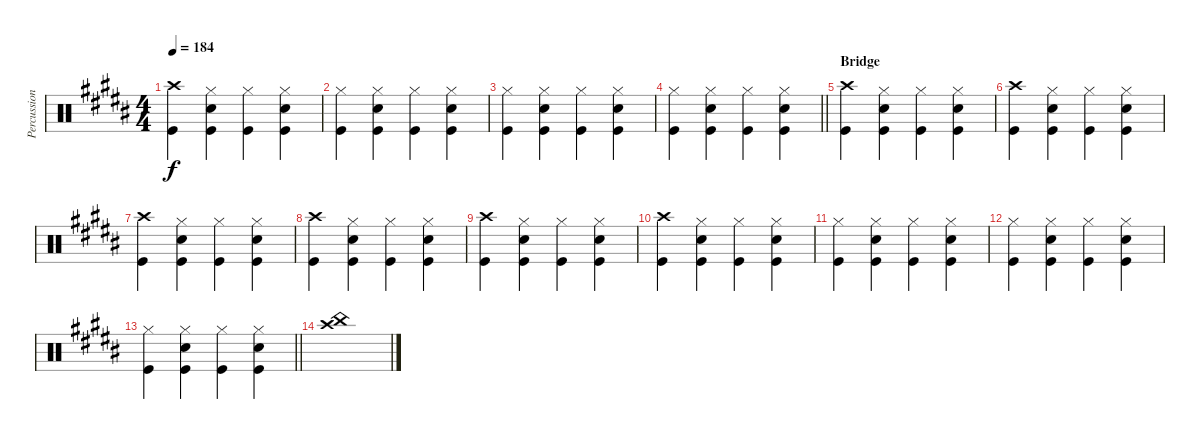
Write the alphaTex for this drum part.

\track ("Percussion" "Percussion") {instrument percussion}
\staff {score}
\articulation defaults
\ts (4 4)
\tempo 184
\clef neutral
\ks b
("Crash high (hit)" "Kick (hit)").4{dy f} ("Snare (hit) 2" "Kick (hit)" "Hi-Hat (closed)").4 ("Kick (hit)" "Hi-Hat (closed)").4 ("Snare (hit) 2" "Kick (hit)" "Hi-Hat (closed)").4 |
("Hi-Hat (closed)" "Kick (hit)").4 ("Snare (hit) 2" "Kick (hit)" "Hi-Hat (closed)").4 ("Hi-Hat (closed)" "Kick (hit)").4 ("Snare (hit) 2" "Kick (hit)" "Hi-Hat (closed)").4 |
("Hi-Hat (closed)" "Kick (hit)").4 ("Kick (hit)" "Hi-Hat (closed)" "Snare (hit) 2").4 ("Hi-Hat (closed)" "Kick (hit)").4 ("Hi-Hat (closed)" "Kick (hit)" "Snare (hit) 2").4 |
\barLineRight lightlight
("Hi-Hat (closed)" "Kick (hit)").4 ("Hi-Hat (closed)" "Kick (hit)" "Snare (hit) 2").4 ("Hi-Hat (closed)" "Kick (hit)").4 ("Hi-Hat (closed)" "Kick (hit)" "Snare (hit) 2").4 |
\section ("" "Bridge")
("Crash high (hit)" "Kick (hit)").4 ("Snare (hit) 2" "Kick (hit)" "Hi-Hat (closed)").4 ("Kick (hit)" "Hi-Hat (closed)").4 ("Snare (hit) 2" "Kick (hit)" "Hi-Hat (closed)").4 |
("Kick (hit)" "Crash high (hit)").4 ("Snare (hit) 2" "Kick (hit)" "Hi-Hat (closed)").4 ("Hi-Hat (closed)" "Kick (hit)").4 ("Snare (hit) 2" "Kick (hit)" "Hi-Hat (closed)").4 |
("Kick (hit)" "Crash high (hit)").4 ("Kick (hit)" "Hi-Hat (closed)" "Snare (hit) 2").4 ("Hi-Hat (closed)" "Kick (hit)").4 ("Hi-Hat (closed)" "Kick (hit)" "Snare (hit) 2").4 |
("Crash high (hit)" "Kick (hit)").4 ("Hi-Hat (closed)" "Kick (hit)" "Snare (hit) 2").4 ("Hi-Hat (closed)" "Kick (hit)").4 ("Hi-Hat (closed)" "Kick (hit)" "Snare (hit) 2").4 |
("Kick (hit)" "Crash high (hit)").4 ("Snare (hit) 2" "Kick (hit)" "Hi-Hat (closed)").4 ("Kick (hit)" "Hi-Hat (closed)").4 ("Snare (hit) 2" "Kick (hit)" "Hi-Hat (closed)").4 |
("Kick (hit)" "Crash high (hit)").4 ("Snare (hit) 2" "Kick (hit)" "Hi-Hat (closed)").4 ("Hi-Hat (closed)" "Kick (hit)").4 ("Snare (hit) 2" "Kick (hit)" "Hi-Hat (closed)").4 |
("Hi-Hat (closed)" "Kick (hit)").4 ("Kick (hit)" "Hi-Hat (closed)" "Snare (hit) 2").4 ("Hi-Hat (closed)" "Kick (hit)").4 ("Hi-Hat (closed)" "Kick (hit)" "Snare (hit) 2").4 |
("Hi-Hat (closed)" "Kick (hit)").4 ("Hi-Hat (closed)" "Kick (hit)" "Snare (hit) 2").4 ("Hi-Hat (closed)" "Kick (hit)").4 ("Hi-Hat (closed)" "Kick (hit)" "Snare (hit) 2").4 |
\barLineRight lightlight
("Hi-Hat (closed)" "Kick (hit)").4 ("Hi-Hat (closed)" "Kick (hit)" "Snare (hit) 2").4 ("Hi-Hat (closed)" "Kick (hit)").4 ("Hi-Hat (closed)" "Kick (hit)" "Snare (hit) 2").4 |
("Crash high (hit)" "China (hit)").1
